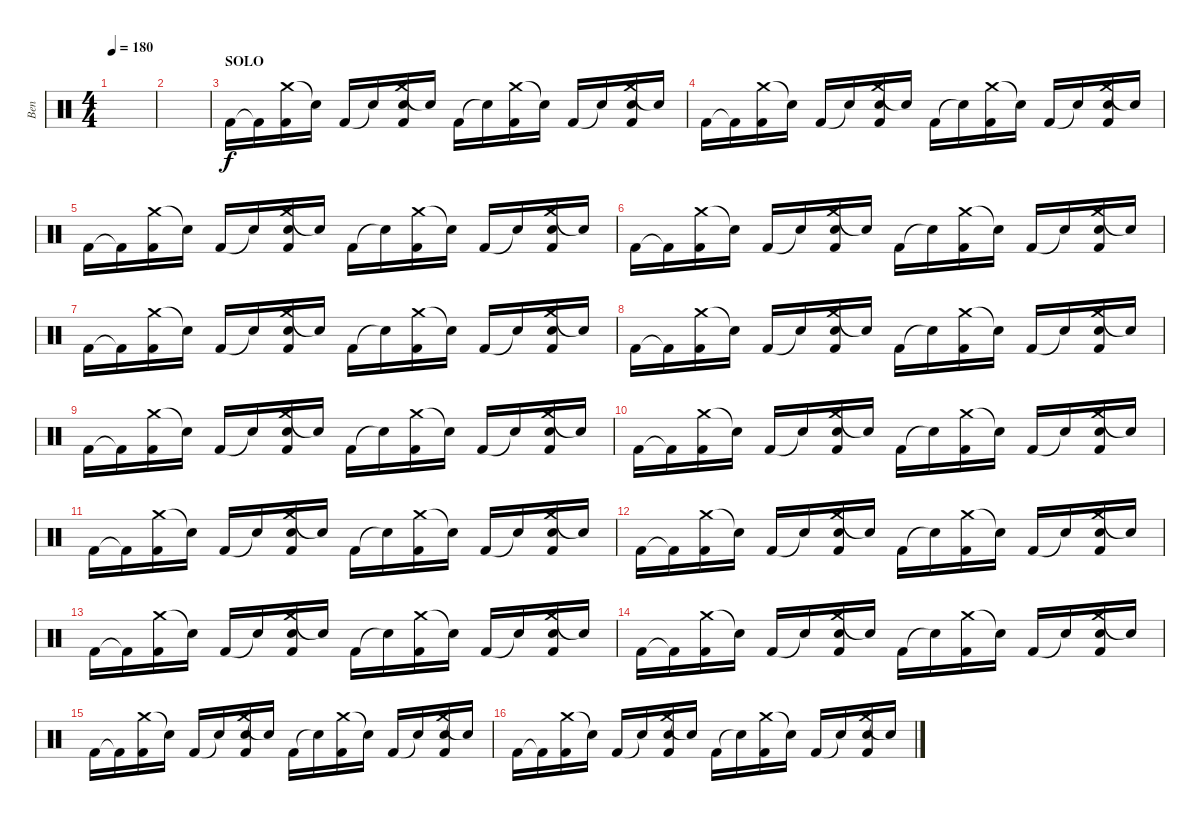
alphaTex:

\track ("Ben" "Ben") {instrument percussion}
\staff {score}
\articulation defaults
\ts (4 4)
\tempo 180
\clef neutral
\ks c
|
|
\section ("" "SOLO")
"Kick (hit) 2".16 "Kick (hit) 2"{t}.16 ("Crash medium (hit)" "Kick (hit) 2").16 "Snare (hit)"{t}.16 "Kick (hit) 2".16 "Snare (hit)"{t}.16 ("Crash medium (hit)" "Electric Snare (hit)" "Kick (hit) 2").16 "Snare (hit)"{t}.16 "Kick (hit) 2".16 "Snare (hit)"{t}.16 ("Crash medium (hit)" "Kick (hit) 2").16 "Snare (hit)"{t}.16 "Kick (hit) 2".16 "Snare (hit)"{t}.16 ("Crash medium (hit)" "Electric Snare (hit)" "Kick (hit) 2").16 "Snare (hit)"{t}.16 |
"Kick (hit) 2".16 "Kick (hit) 2"{t}.16 ("Crash medium (hit)" "Kick (hit) 2").16 "Snare (hit)"{t}.16 "Kick (hit) 2".16 "Snare (hit)"{t}.16 ("Crash medium (hit)" "Electric Snare (hit)" "Kick (hit) 2").16 "Snare (hit)"{t}.16 "Kick (hit) 2".16 "Snare (hit)"{t}.16 ("Crash medium (hit)" "Kick (hit) 2").16 "Snare (hit)"{t}.16 "Kick (hit) 2".16 "Snare (hit)"{t}.16 ("Crash medium (hit)" "Electric Snare (hit)" "Kick (hit) 2").16 "Snare (hit)"{t}.16 |
"Kick (hit) 2".16 "Kick (hit) 2"{t}.16 ("Crash medium (hit)" "Kick (hit) 2").16 "Snare (hit)"{t}.16 "Kick (hit) 2".16 "Snare (hit)"{t}.16 ("Crash medium (hit)" "Electric Snare (hit)" "Kick (hit) 2").16 "Snare (hit)"{t}.16 "Kick (hit) 2".16 "Snare (hit)"{t}.16 ("Crash medium (hit)" "Kick (hit) 2").16 "Snare (hit)"{t}.16 "Kick (hit) 2".16 "Snare (hit)"{t}.16 ("Crash medium (hit)" "Electric Snare (hit)" "Kick (hit) 2").16 "Snare (hit)"{t}.16 |
"Kick (hit) 2".16 "Kick (hit) 2"{t}.16 ("Crash medium (hit)" "Kick (hit) 2").16 "Snare (hit)"{t}.16 "Kick (hit) 2".16 "Snare (hit)"{t}.16 ("Crash medium (hit)" "Electric Snare (hit)" "Kick (hit) 2").16 "Snare (hit)"{t}.16 "Kick (hit) 2".16 "Snare (hit)"{t}.16 ("Crash medium (hit)" "Kick (hit) 2").16 "Snare (hit)"{t}.16 "Kick (hit) 2".16 "Snare (hit)"{t}.16 ("Crash medium (hit)" "Electric Snare (hit)" "Kick (hit) 2").16 "Snare (hit)"{t}.16 |
"Kick (hit) 2".16 "Kick (hit) 2"{t}.16 ("Crash medium (hit)" "Kick (hit) 2").16 "Snare (hit)"{t}.16 "Kick (hit) 2".16 "Snare (hit)"{t}.16 ("Crash medium (hit)" "Electric Snare (hit)" "Kick (hit) 2").16 "Snare (hit)"{t}.16 "Kick (hit) 2".16 "Snare (hit)"{t}.16 ("Crash medium (hit)" "Kick (hit) 2").16 "Snare (hit)"{t}.16 "Kick (hit) 2".16 "Snare (hit)"{t}.16 ("Crash medium (hit)" "Electric Snare (hit)" "Kick (hit) 2").16 "Snare (hit)"{t}.16 |
"Kick (hit) 2".16 "Kick (hit) 2"{t}.16 ("Crash medium (hit)" "Kick (hit) 2").16 "Snare (hit)"{t}.16 "Kick (hit) 2".16 "Snare (hit)"{t}.16 ("Crash medium (hit)" "Electric Snare (hit)" "Kick (hit) 2").16 "Snare (hit)"{t}.16 "Kick (hit) 2".16 "Snare (hit)"{t}.16 ("Crash medium (hit)" "Kick (hit) 2").16 "Snare (hit)"{t}.16 "Kick (hit) 2".16 "Snare (hit)"{t}.16 ("Crash medium (hit)" "Electric Snare (hit)" "Kick (hit) 2").16 "Snare (hit)"{t}.16 |
"Kick (hit) 2".16 "Kick (hit) 2"{t}.16 ("Crash medium (hit)" "Kick (hit) 2").16 "Snare (hit)"{t}.16 "Kick (hit) 2".16 "Snare (hit)"{t}.16 ("Crash medium (hit)" "Electric Snare (hit)" "Kick (hit) 2").16 "Snare (hit)"{t}.16 "Kick (hit) 2".16 "Snare (hit)"{t}.16 ("Crash medium (hit)" "Kick (hit) 2").16 "Snare (hit)"{t}.16 "Kick (hit) 2".16 "Snare (hit)"{t}.16 ("Crash medium (hit)" "Electric Snare (hit)" "Kick (hit) 2").16 "Snare (hit)"{t}.16 |
"Kick (hit) 2".16 "Kick (hit) 2"{t}.16 ("Crash medium (hit)" "Kick (hit) 2").16 "Snare (hit)"{t}.16 "Kick (hit) 2".16 "Snare (hit)"{t}.16 ("Crash medium (hit)" "Electric Snare (hit)" "Kick (hit) 2").16 "Snare (hit)"{t}.16 "Kick (hit) 2".16 "Snare (hit)"{t}.16 ("Crash medium (hit)" "Kick (hit) 2").16 "Snare (hit)"{t}.16 "Kick (hit) 2".16 "Snare (hit)"{t}.16 ("Crash medium (hit)" "Electric Snare (hit)" "Kick (hit) 2").16 "Snare (hit)"{t}.16 |
"Kick (hit) 2".16 "Kick (hit) 2"{t}.16 ("Crash medium (hit)" "Kick (hit) 2").16 "Snare (hit)"{t}.16 "Kick (hit) 2".16 "Snare (hit)"{t}.16 ("Crash medium (hit)" "Electric Snare (hit)" "Kick (hit) 2").16 "Snare (hit)"{t}.16 "Kick (hit) 2".16 "Snare (hit)"{t}.16 ("Crash medium (hit)" "Kick (hit) 2").16 "Snare (hit)"{t}.16 "Kick (hit) 2".16 "Snare (hit)"{t}.16 ("Crash medium (hit)" "Electric Snare (hit)" "Kick (hit) 2").16 "Snare (hit)"{t}.16 |
"Kick (hit) 2".16 "Kick (hit) 2"{t}.16 ("Crash medium (hit)" "Kick (hit) 2").16 "Snare (hit)"{t}.16 "Kick (hit) 2".16 "Snare (hit)"{t}.16 ("Crash medium (hit)" "Electric Snare (hit)" "Kick (hit) 2").16 "Snare (hit)"{t}.16 "Kick (hit) 2".16 "Snare (hit)"{t}.16 ("Crash medium (hit)" "Kick (hit) 2").16 "Snare (hit)"{t}.16 "Kick (hit) 2".16 "Snare (hit)"{t}.16 ("Crash medium (hit)" "Electric Snare (hit)" "Kick (hit) 2").16 "Snare (hit)"{t}.16 |
"Kick (hit) 2".16 "Kick (hit) 2"{t}.16 ("Crash medium (hit)" "Kick (hit) 2").16 "Snare (hit)"{t}.16 "Kick (hit) 2".16 "Snare (hit)"{t}.16 ("Crash medium (hit)" "Electric Snare (hit)" "Kick (hit) 2").16 "Snare (hit)"{t}.16 "Kick (hit) 2".16 "Snare (hit)"{t}.16 ("Crash medium (hit)" "Kick (hit) 2").16 "Snare (hit)"{t}.16 "Kick (hit) 2".16 "Snare (hit)"{t}.16 ("Crash medium (hit)" "Electric Snare (hit)" "Kick (hit) 2").16 "Snare (hit)"{t}.16 |
"Kick (hit) 2".16 "Kick (hit) 2"{t}.16 ("Crash medium (hit)" "Kick (hit) 2").16 "Snare (hit)"{t}.16 "Kick (hit) 2".16 "Snare (hit)"{t}.16 ("Crash medium (hit)" "Electric Snare (hit)" "Kick (hit) 2").16 "Snare (hit)"{t}.16 "Kick (hit) 2".16 "Snare (hit)"{t}.16 ("Crash medium (hit)" "Kick (hit) 2").16 "Snare (hit)"{t}.16 "Kick (hit) 2".16 "Snare (hit)"{t}.16 ("Crash medium (hit)" "Electric Snare (hit)" "Kick (hit) 2").16 "Snare (hit)"{t}.16 |
"Kick (hit) 2".16 "Kick (hit) 2"{t}.16 ("Crash medium (hit)" "Kick (hit) 2").16 "Snare (hit)"{t}.16 "Kick (hit) 2".16 "Snare (hit)"{t}.16 ("Crash medium (hit)" "Electric Snare (hit)" "Kick (hit) 2").16 "Snare (hit)"{t}.16 "Kick (hit) 2".16 "Snare (hit)"{t}.16 ("Crash medium (hit)" "Kick (hit) 2").16 "Snare (hit)"{t}.16 "Kick (hit) 2".16 "Snare (hit)"{t}.16 ("Crash medium (hit)" "Electric Snare (hit)" "Kick (hit) 2").16 "Snare (hit)"{t}.16 |
"Kick (hit) 2".16 "Kick (hit) 2"{t}.16 ("Crash medium (hit)" "Kick (hit) 2").16 "Snare (hit)"{t}.16 "Kick (hit) 2".16 "Snare (hit)"{t}.16 ("Crash medium (hit)" "Electric Snare (hit)" "Kick (hit) 2").16 "Snare (hit)"{t}.16 "Kick (hit) 2".16 "Snare (hit)"{t}.16 ("Crash medium (hit)" "Kick (hit) 2").16 "Snare (hit)"{t}.16 "Kick (hit) 2".16 "Snare (hit)"{t}.16 ("Crash medium (hit)" "Electric Snare (hit)" "Kick (hit) 2").16 "Snare (hit)"{t}.16
